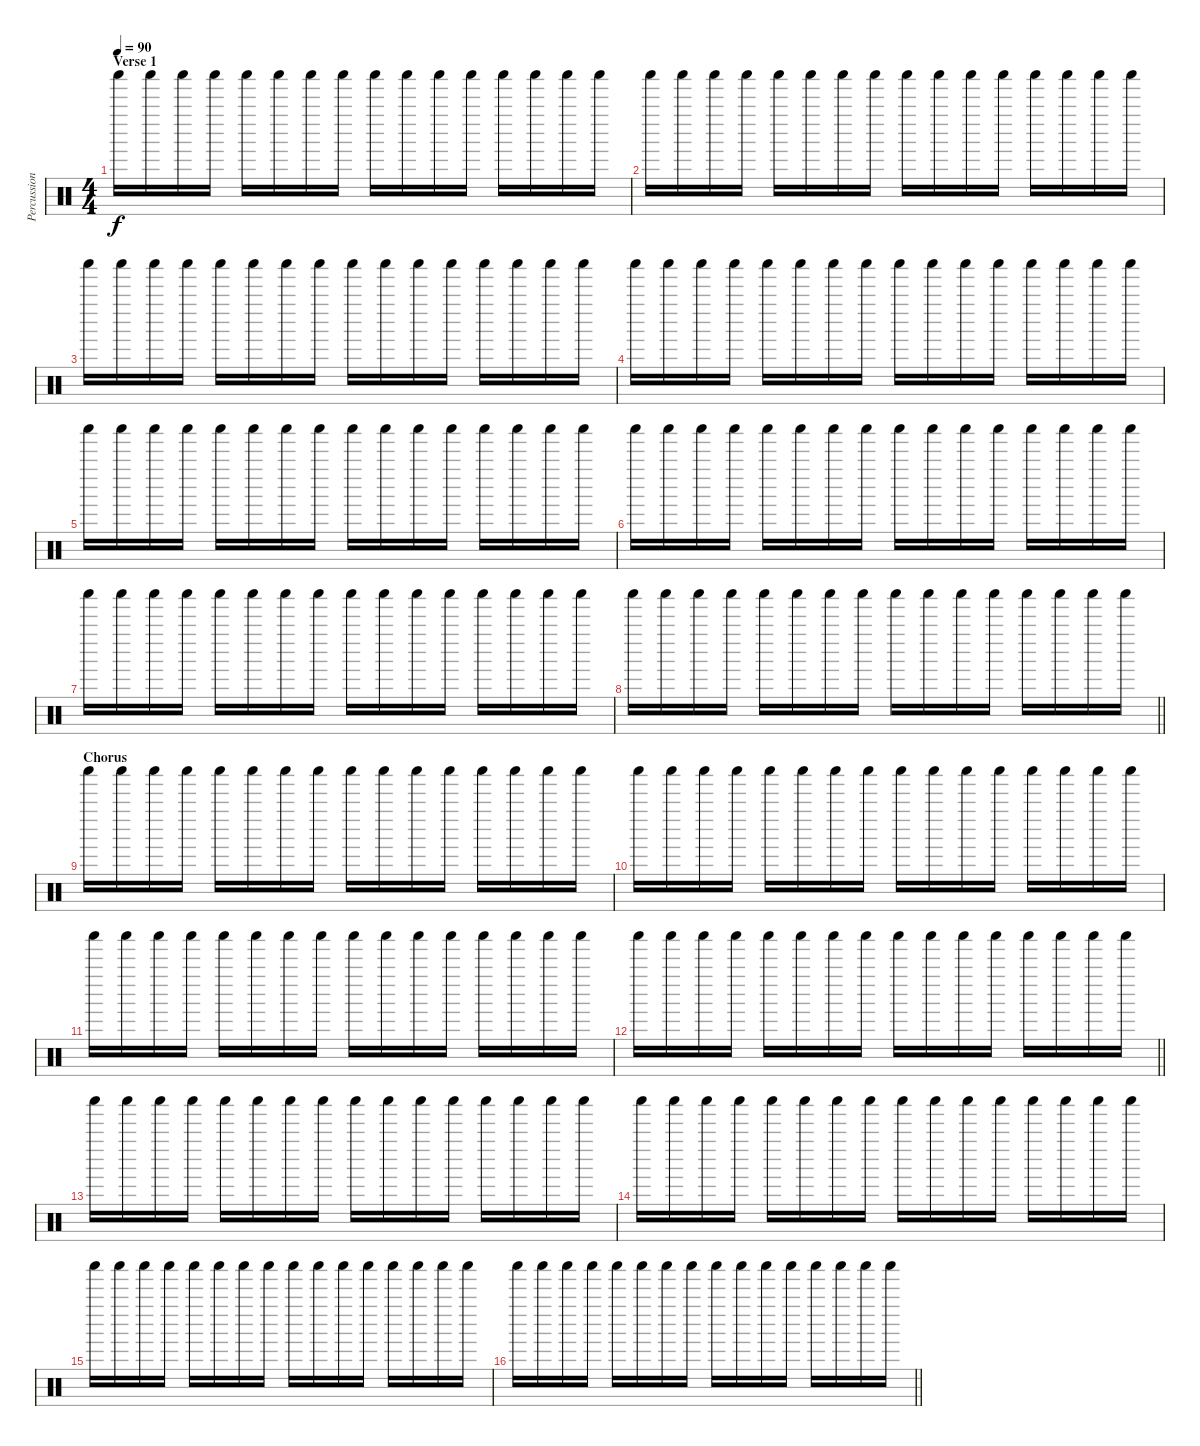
\track ("Percussion" "Percussion") {instrument percussion}
\staff {score}
\articulation defaults
\ts (4 4)
\section ("" "Verse 1")
\tempo 90
\clef neutral
\ks c "Shaker (hit)".16{dy f} "Shaker (hit)".16 "Shaker (hit)".16 "Shaker (hit)".16 "Shaker (hit)".16 "Shaker (hit)".16 "Shaker (hit)".16 "Shaker (hit)".16 "Shaker (hit)".16 "Shaker (hit)".16 "Shaker (hit)".16 "Shaker (hit)".16 "Shaker (hit)".16 "Shaker (hit)".16 "Shaker (hit)".16 "Shaker (hit)".16
|
"Shaker (hit)".16 "Shaker (hit)".16 "Shaker (hit)".16 "Shaker (hit)".16 "Shaker (hit)".16 "Shaker (hit)".16 "Shaker (hit)".16 "Shaker (hit)".16 "Shaker (hit)".16 "Shaker (hit)".16 "Shaker (hit)".16 "Shaker (hit)".16 "Shaker (hit)".16 "Shaker (hit)".16 "Shaker (hit)".16 "Shaker (hit)".16 |
"Shaker (hit)".16 "Shaker (hit)".16 "Shaker (hit)".16 "Shaker (hit)".16 "Shaker (hit)".16 "Shaker (hit)".16 "Shaker (hit)".16 "Shaker (hit)".16 "Shaker (hit)".16 "Shaker (hit)".16 "Shaker (hit)".16 "Shaker (hit)".16 "Shaker (hit)".16 "Shaker (hit)".16 "Shaker (hit)".16 "Shaker (hit)".16 |
"Shaker (hit)".16 "Shaker (hit)".16 "Shaker (hit)".16 "Shaker (hit)".16 "Shaker (hit)".16 "Shaker (hit)".16 "Shaker (hit)".16 "Shaker (hit)".16 "Shaker (hit)".16 "Shaker (hit)".16 "Shaker (hit)".16 "Shaker (hit)".16 "Shaker (hit)".16 "Shaker (hit)".16 "Shaker (hit)".16 "Shaker (hit)".16 |
"Shaker (hit)".16 "Shaker (hit)".16 "Shaker (hit)".16 "Shaker (hit)".16 "Shaker (hit)".16 "Shaker (hit)".16 "Shaker (hit)".16 "Shaker (hit)".16 "Shaker (hit)".16 "Shaker (hit)".16 "Shaker (hit)".16 "Shaker (hit)".16 "Shaker (hit)".16 "Shaker (hit)".16 "Shaker (hit)".16 "Shaker (hit)".16 |
"Shaker (hit)".16 "Shaker (hit)".16 "Shaker (hit)".16 "Shaker (hit)".16 "Shaker (hit)".16 "Shaker (hit)".16 "Shaker (hit)".16 "Shaker (hit)".16 "Shaker (hit)".16 "Shaker (hit)".16 "Shaker (hit)".16 "Shaker (hit)".16 "Shaker (hit)".16 "Shaker (hit)".16 "Shaker (hit)".16 "Shaker (hit)".16 |
"Shaker (hit)".16 "Shaker (hit)".16 "Shaker (hit)".16 "Shaker (hit)".16 "Shaker (hit)".16 "Shaker (hit)".16 "Shaker (hit)".16 "Shaker (hit)".16 "Shaker (hit)".16 "Shaker (hit)".16 "Shaker (hit)".16 "Shaker (hit)".16 "Shaker (hit)".16 "Shaker (hit)".16 "Shaker (hit)".16 "Shaker (hit)".16 |
\barLineRight lightlight "Shaker (hit)".16 "Shaker (hit)".16 "Shaker (hit)".16 "Shaker (hit)".16 "Shaker (hit)".16 "Shaker (hit)".16 "Shaker (hit)".16 "Shaker (hit)".16 "Shaker (hit)".16 "Shaker (hit)".16 "Shaker (hit)".16 "Shaker (hit)".16 "Shaker (hit)".16 "Shaker (hit)".16 "Shaker (hit)".16 "Shaker (hit)".16
|
\section ("" "Chorus")
"Shaker (hit)".16 "Shaker (hit)".16 "Shaker (hit)".16 "Shaker (hit)".16 "Shaker (hit)".16 "Shaker (hit)".16 "Shaker (hit)".16 "Shaker (hit)".16 "Shaker (hit)".16 "Shaker (hit)".16 "Shaker (hit)".16 "Shaker (hit)".16 "Shaker (hit)".16 "Shaker (hit)".16 "Shaker (hit)".16 "Shaker (hit)".16 |
"Shaker (hit)".16 "Shaker (hit)".16 "Shaker (hit)".16 "Shaker (hit)".16 "Shaker (hit)".16 "Shaker (hit)".16 "Shaker (hit)".16 "Shaker (hit)".16 "Shaker (hit)".16 "Shaker (hit)".16 "Shaker (hit)".16 "Shaker (hit)".16 "Shaker (hit)".16 "Shaker (hit)".16 "Shaker (hit)".16 "Shaker (hit)".16 |
"Shaker (hit)".16 "Shaker (hit)".16 "Shaker (hit)".16 "Shaker (hit)".16 "Shaker (hit)".16 "Shaker (hit)".16 "Shaker (hit)".16 "Shaker (hit)".16 "Shaker (hit)".16 "Shaker (hit)".16 "Shaker (hit)".16 "Shaker (hit)".16 "Shaker (hit)".16 "Shaker (hit)".16 "Shaker (hit)".16 "Shaker (hit)".16 |
\barLineRight lightlight "Shaker (hit)".16 "Shaker (hit)".16 "Shaker (hit)".16 "Shaker (hit)".16 "Shaker (hit)".16 "Shaker (hit)".16 "Shaker (hit)".16 "Shaker (hit)".16 "Shaker (hit)".16 "Shaker (hit)".16 "Shaker (hit)".16 "Shaker (hit)".16 "Shaker (hit)".16 "Shaker (hit)".16 "Shaker (hit)".16 "Shaker (hit)".16
|
"Shaker (hit)".16 "Shaker (hit)".16 "Shaker (hit)".16 "Shaker (hit)".16 "Shaker (hit)".16 "Shaker (hit)".16 "Shaker (hit)".16 "Shaker (hit)".16 "Shaker (hit)".16 "Shaker (hit)".16 "Shaker (hit)".16 "Shaker (hit)".16 "Shaker (hit)".16 "Shaker (hit)".16 "Shaker (hit)".16 "Shaker (hit)".16 |
"Shaker (hit)".16 "Shaker (hit)".16 "Shaker (hit)".16 "Shaker (hit)".16 "Shaker (hit)".16 "Shaker (hit)".16 "Shaker (hit)".16 "Shaker (hit)".16 "Shaker (hit)".16 "Shaker (hit)".16 "Shaker (hit)".16 "Shaker (hit)".16 "Shaker (hit)".16 "Shaker (hit)".16 "Shaker (hit)".16 "Shaker (hit)".16 |
"Shaker (hit)".16 "Shaker (hit)".16 "Shaker (hit)".16 "Shaker (hit)".16 "Shaker (hit)".16 "Shaker (hit)".16 "Shaker (hit)".16 "Shaker (hit)".16 "Shaker (hit)".16 "Shaker (hit)".16 "Shaker (hit)".16 "Shaker (hit)".16 "Shaker (hit)".16 "Shaker (hit)".16 "Shaker (hit)".16 "Shaker (hit)".16 |
\barLineRight lightlight "Shaker (hit)".16 "Shaker (hit)".16 "Shaker (hit)".16 "Shaker (hit)".16 "Shaker (hit)".16 "Shaker (hit)".16 "Shaker (hit)".16 "Shaker (hit)".16 "Shaker (hit)".16 "Shaker (hit)".16 "Shaker (hit)".16 "Shaker (hit)".16 "Shaker (hit)".16 "Shaker (hit)".16 "Shaker (hit)".16 "Shaker (hit)".16
